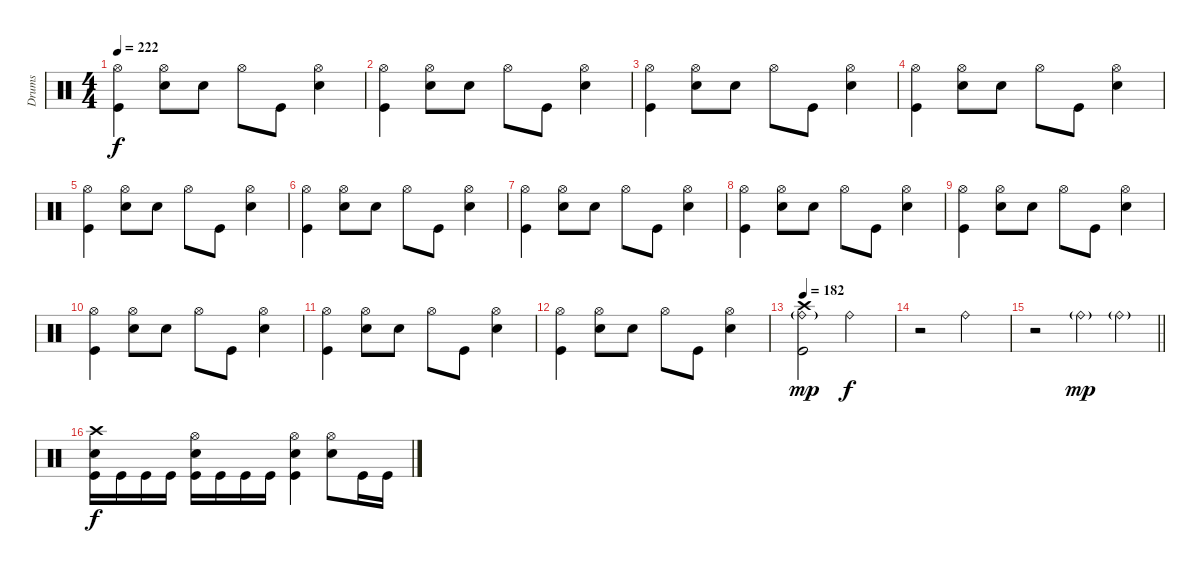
\track ("Drums" "Drums") {instrument percussion}
\staff
\articulation defaults
\ts (4 4)
\section ("" "")
\tempo 222
\clef neutral
\ks c
("Hi-Hat (open)" "Kick (hit)").4{dy f} ("Hi-Hat (open)" "Electric Snare (hit)").8 "Electric Snare (hit)".8 "Hi-Hat (open)".8 "Kick (hit)".8 ("Hi-Hat (open)" "Electric Snare (hit)").4 |
("Hi-Hat (open)" "Kick (hit)").4 ("Hi-Hat (open)" "Electric Snare (hit)").8 "Electric Snare (hit)".8 "Hi-Hat (open)".8 "Kick (hit)".8 ("Hi-Hat (open)" "Electric Snare (hit)").4 |
("Hi-Hat (open)" "Kick (hit)").4 ("Hi-Hat (open)" "Electric Snare (hit)").8 "Electric Snare (hit)".8 "Hi-Hat (open)".8 "Kick (hit)".8 ("Hi-Hat (open)" "Electric Snare (hit)").4 |
("Hi-Hat (open)" "Kick (hit)").4 ("Hi-Hat (open)" "Electric Snare (hit)").8 "Electric Snare (hit)".8 "Hi-Hat (open)".8 "Kick (hit)".8 ("Hi-Hat (open)" "Electric Snare (hit)").4 |
("Hi-Hat (open)" "Kick (hit)").4 ("Hi-Hat (open)" "Electric Snare (hit)").8 "Electric Snare (hit)".8 "Hi-Hat (open)".8 "Kick (hit)".8 ("Hi-Hat (open)" "Electric Snare (hit)").4 |
("Hi-Hat (open)" "Kick (hit)").4 ("Hi-Hat (open)" "Electric Snare (hit)").8 "Electric Snare (hit)".8 "Hi-Hat (open)".8 "Kick (hit)".8 ("Hi-Hat (open)" "Electric Snare (hit)").4 |
("Hi-Hat (open)" "Kick (hit)").4 ("Hi-Hat (open)" "Electric Snare (hit)").8 "Electric Snare (hit)".8 "Hi-Hat (open)".8 "Kick (hit)".8 ("Hi-Hat (open)" "Electric Snare (hit)").4 |
("Hi-Hat (open)" "Kick (hit)").4 ("Hi-Hat (open)" "Electric Snare (hit)").8 "Electric Snare (hit)".8 "Hi-Hat (open)".8 "Kick (hit)".8 ("Hi-Hat (open)" "Electric Snare (hit)").4 |
("Hi-Hat (open)" "Kick (hit)").4 ("Hi-Hat (open)" "Electric Snare (hit)").8 "Electric Snare (hit)".8 "Hi-Hat (open)".8 "Kick (hit)".8 ("Hi-Hat (open)" "Electric Snare (hit)").4 |
("Hi-Hat (open)" "Kick (hit)").4 ("Hi-Hat (open)" "Electric Snare (hit)").8 "Electric Snare (hit)".8 "Hi-Hat (open)".8 "Kick (hit)".8 ("Hi-Hat (open)" "Electric Snare (hit)").4 |
("Hi-Hat (open)" "Kick (hit)").4 ("Hi-Hat (open)" "Electric Snare (hit)").8 "Electric Snare (hit)".8 "Hi-Hat (open)".8 "Kick (hit)".8 ("Hi-Hat (open)" "Electric Snare (hit)").4 |
("Hi-Hat (open)" "Kick (hit)").4 ("Hi-Hat (open)" "Electric Snare (hit)").8 "Electric Snare (hit)".8 "Hi-Hat (open)".8 "Kick (hit)".8 ("Hi-Hat (open)" "Electric Snare (hit)").4 |
\tempo 182
("Crash high (hit)" "Ride (bell)"{g} "Kick (hit)").2{dy mp} "Ride (bell)".2{dy f} |
r.2 "Ride (bell)".2 |
\barLineRight lightlight
r.2 "Ride (bell)"{g}.4{dy mp} "Ride (bell)"{g}.4 |
\section ("" "")
("Crash high (hit)" "Electric Snare (hit)" "Kick (hit)").16{dy f} "Kick (hit)".16 "Kick (hit)".16 "Kick (hit)".16 ("Hi-Hat (open)" "Electric Snare (hit)" "Kick (hit)").16 "Kick (hit)".16 "Kick (hit)".16 "Kick (hit)".16 ("Hi-Hat (open)" "Electric Snare (hit)" "Kick (hit)").4 ("Hi-Hat (open)" "Electric Snare (hit)").8 "Kick (hit)".16 "Kick (hit)".16
